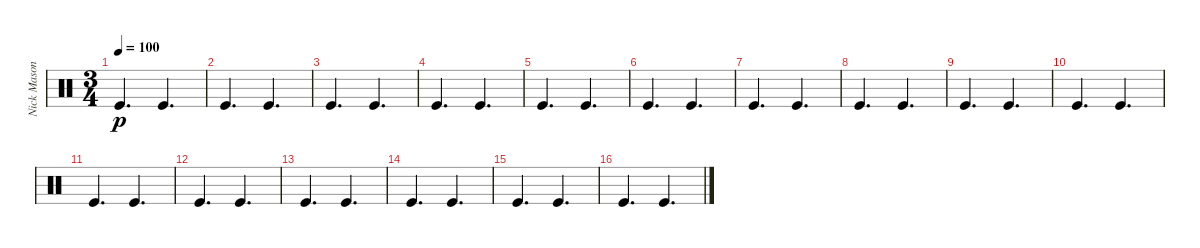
\track ("Nick Mason" "Nick Mason") {instrument percussion}
\staff {score}
\articulation defaults
\ts (3 4)
\tempo 100
\clef neutral
\ks c "Kick (hit)".4{d dy p volume 9} "Kick (hit)".4{d}
|
"Kick (hit)".4{d} "Kick (hit)".4{d} |
"Kick (hit)".4{d} "Kick (hit)".4{d} |
"Kick (hit)".4{d} "Kick (hit)".4{d} |
"Kick (hit)".4{d} "Kick (hit)".4{d} |
"Kick (hit)".4{d} "Kick (hit)".4{d volume 5} |
"Kick (hit)".4{d} "Kick (hit)".4{d} |
"Kick (hit)".4{d} "Kick (hit)".4{d} |
"Kick (hit)".4{d} "Kick (hit)".4{d} |
"Kick (hit)".4{d} "Kick (hit)".4{d} |
"Kick (hit)".4{d} "Kick (hit)".4{d} |
"Kick (hit)".4{d volume 0} "Kick (hit)".4{d} |
"Kick (hit)".4{d} "Kick (hit)".4{d} |
"Kick (hit)".4{d} "Kick (hit)".4{d} |
"Kick (hit)".4{d} "Kick (hit)".4{d} |
"Kick (hit)".4{d} "Kick (hit)".4{d}
